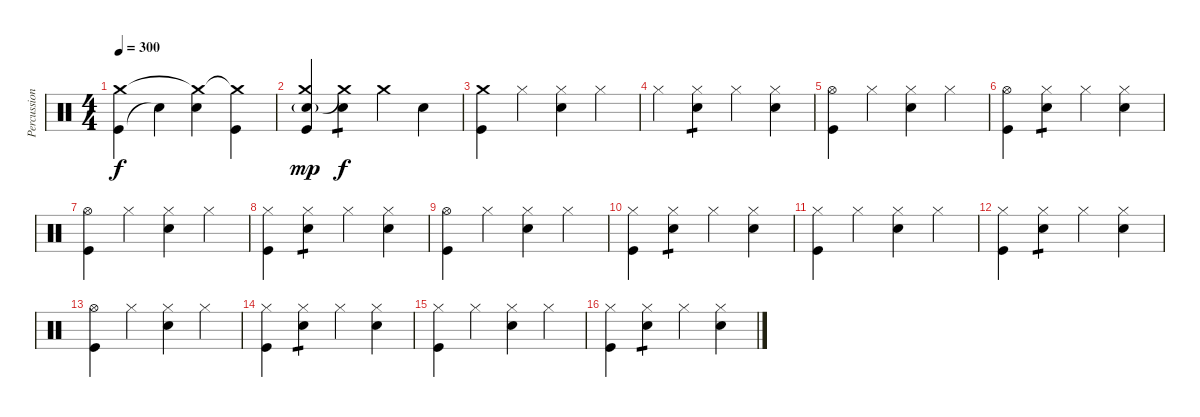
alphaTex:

\track ("Percussion" "Percussion") {instrument percussion}
\staff {score}
\articulation defaults
\ts (4 4)
\tempo 300
\clef neutral
\ks c
("Kick (hit)" "Crash medium (hit)").4{dy f} "Snare (hit)"{t}.4 ("Electric Snare (hit)" "Crash medium (hit)"{t}).4 ("Kick (hit)" "Crash medium (hit)"{t}).4 |
("Kick (hit)" "Electric Snare (hit)"{g} "Crash medium (hit)").4{dy mp} ("Electric Snare (hit)" "Crash medium (hit)"{t}).4{tp 1 dy f} "Crash medium (hit)".4 "Electric Snare (hit)".4 |
("Kick (hit)" "Crash medium (hit)").4 "Hi-Hat (closed)".4 ("Electric Snare (hit)" "Hi-Hat (closed)").4 "Hi-Hat (closed)".4 |
"Hi-Hat (closed)".4 ("Electric Snare (hit)" "Hi-Hat (closed)").4{tp 1} "Hi-Hat (closed)".4 ("Electric Snare (hit)" "Hi-Hat (closed)").4 |
("Kick (hit)" "Hi-Hat (open)").4 "Hi-Hat (closed)".4 ("Electric Snare (hit)" "Hi-Hat (closed)").4 "Hi-Hat (closed)".4 |
("Kick (hit)" "Hi-Hat (open)").4 ("Electric Snare (hit)" "Hi-Hat (closed)").4{tp 1} "Hi-Hat (closed)".4 ("Electric Snare (hit)" "Hi-Hat (closed)").4 |
("Kick (hit)" "Hi-Hat (open)").4 "Hi-Hat (closed)".4 ("Electric Snare (hit)" "Hi-Hat (closed)").4 "Hi-Hat (closed)".4 |
("Kick (hit)" "Hi-Hat (closed)").4 ("Electric Snare (hit)" "Hi-Hat (closed)").4{tp 1} "Hi-Hat (closed)".4 ("Electric Snare (hit)" "Hi-Hat (closed)").4 |
("Kick (hit)" "Hi-Hat (open)").4 "Hi-Hat (closed)".4 ("Electric Snare (hit)" "Hi-Hat (closed)").4 "Hi-Hat (closed)".4 |
("Kick (hit)" "Hi-Hat (closed)").4 ("Electric Snare (hit)" "Hi-Hat (closed)").4{tp 1} "Hi-Hat (closed)".4 ("Electric Snare (hit)" "Hi-Hat (closed)").4 |
("Kick (hit)" "Hi-Hat (closed)").4 "Hi-Hat (closed)".4 ("Electric Snare (hit)" "Hi-Hat (closed)").4 "Hi-Hat (closed)".4 |
("Kick (hit)" "Hi-Hat (closed)").4 ("Electric Snare (hit)" "Hi-Hat (closed)").4{tp 1} "Hi-Hat (closed)".4 ("Electric Snare (hit)" "Hi-Hat (closed)").4 |
("Kick (hit)" "Hi-Hat (open)").4 "Hi-Hat (closed)".4 ("Electric Snare (hit)" "Hi-Hat (closed)").4 "Hi-Hat (closed)".4 |
("Kick (hit)" "Hi-Hat (closed)").4 ("Electric Snare (hit)" "Hi-Hat (closed)").4{tp 1} "Hi-Hat (closed)".4 ("Electric Snare (hit)" "Hi-Hat (closed)").4 |
("Kick (hit)" "Hi-Hat (closed)").4 "Hi-Hat (closed)".4 ("Electric Snare (hit)" "Hi-Hat (closed)").4 "Hi-Hat (closed)".4 |
("Kick (hit)" "Hi-Hat (closed)").4 ("Electric Snare (hit)" "Hi-Hat (closed)").4{tp 1} "Hi-Hat (closed)".4 ("Electric Snare (hit)" "Hi-Hat (closed)").4
